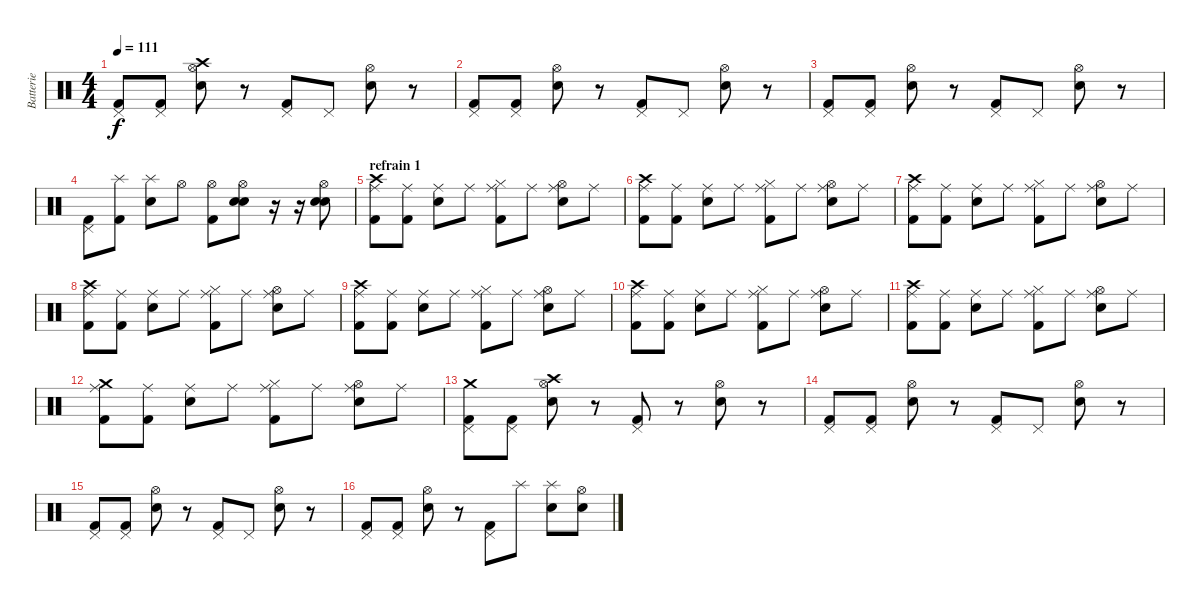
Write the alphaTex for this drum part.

\track ("Batterie" "Batterie") {instrument percussion}
\staff {score}
\articulation defaults
\ts (4 4)
\tempo 111
\clef neutral
\ks c
("Pedal Hi-Hat (hit)" "Kick (hit) 2").8{dy f} ("Pedal Hi-Hat (hit)" "Kick (hit) 2").8 ("Hi-Hat (open)" "Crash high (hit)" "Electric Snare (hit)").8 r.8 ("Pedal Hi-Hat (hit)" "Kick (hit) 2").8 "Pedal Hi-Hat (hit)".8 ("Hi-Hat (open)" "Electric Snare (hit)").8 r.8 |
("Pedal Hi-Hat (hit)" "Kick (hit) 2").8 ("Pedal Hi-Hat (hit)" "Kick (hit) 2").8 ("Hi-Hat (open)" "Electric Snare (hit)").8 r.8 ("Pedal Hi-Hat (hit)" "Kick (hit) 2").8 "Pedal Hi-Hat (hit)".8 ("Hi-Hat (open)" "Electric Snare (hit)").8 r.8 |
("Pedal Hi-Hat (hit)" "Kick (hit) 2").8 ("Pedal Hi-Hat (hit)" "Kick (hit) 2").8 ("Hi-Hat (open)" "Electric Snare (hit)").8 r.8 ("Pedal Hi-Hat (hit)" "Kick (hit) 2").8 "Pedal Hi-Hat (hit)".8 ("Hi-Hat (open)" "Electric Snare (hit)").8 r.8 |
("Pedal Hi-Hat (hit)" "Kick (hit) 2").8 ("Splash (hit)" "Kick (hit) 2").8 ("Splash (hit)" "Electric Snare (hit)").8 "Hi-Hat (open)".8 ("Hi-Hat (open)" "Kick (hit) 2").8 ("Hi-Hat (open)" "Electric Snare (hit)" "Electric Snare (hit)").8 r.16 r.16 ("Hi-Hat (open)" "Electric Snare (hit)" "Electric Snare (hit)").8 |
\section ("" "refrain 1")
("Ride (middle)" "Crash high (hit)" "Kick (hit) 2").8 ("Ride (middle)" "Kick (hit) 2").8 ("Ride (middle)" "Electric Snare (hit)").8 "Ride (middle)".8 ("Ride (middle)" "Hi-Hat (closed)" "Kick (hit) 2").8 "Ride (middle)".8 ("Ride (middle)" "Hi-Hat (open)" "Electric Snare (hit)").8 "Ride (middle)".8 |
("Ride (middle)" "Crash high (hit)" "Kick (hit) 2").8 ("Ride (middle)" "Kick (hit) 2").8 ("Ride (middle)" "Electric Snare (hit)").8 "Ride (middle)".8 ("Ride (middle)" "Hi-Hat (closed)" "Kick (hit) 2").8 "Ride (middle)".8 ("Ride (middle)" "Hi-Hat (open)" "Electric Snare (hit)").8 "Ride (middle)".8 |
("Ride (middle)" "Crash high (hit)" "Kick (hit) 2").8 ("Ride (middle)" "Kick (hit) 2").8 ("Ride (middle)" "Electric Snare (hit)").8 "Ride (middle)".8 ("Ride (middle)" "Hi-Hat (closed)" "Kick (hit) 2").8 "Ride (middle)".8 ("Ride (middle)" "Hi-Hat (open)" "Electric Snare (hit)").8 "Ride (middle)".8 |
("Ride (middle)" "Crash high (hit)" "Kick (hit) 2").8 ("Ride (middle)" "Kick (hit) 2").8 ("Ride (middle)" "Electric Snare (hit)").8 "Ride (middle)".8 ("Ride (middle)" "Hi-Hat (closed)" "Kick (hit) 2").8 "Ride (middle)".8 ("Ride (middle)" "Hi-Hat (open)" "Electric Snare (hit)").8 "Ride (middle)".8 |
("Ride (middle)" "Crash high (hit)" "Kick (hit) 2").8 ("Ride (middle)" "Kick (hit) 2").8 ("Ride (middle)" "Electric Snare (hit)").8 "Ride (middle)".8 ("Ride (middle)" "Hi-Hat (closed)" "Kick (hit) 2").8 "Ride (middle)".8 ("Ride (middle)" "Hi-Hat (open)" "Electric Snare (hit)").8 "Ride (middle)".8 |
("Ride (middle)" "Crash high (hit)" "Kick (hit) 2").8 ("Ride (middle)" "Kick (hit) 2").8 ("Ride (middle)" "Electric Snare (hit)").8 "Ride (middle)".8 ("Ride (middle)" "Hi-Hat (closed)" "Kick (hit) 2").8 "Ride (middle)".8 ("Ride (middle)" "Hi-Hat (open)" "Electric Snare (hit)").8 "Ride (middle)".8 |
("Ride (middle)" "Crash high (hit)" "Kick (hit) 2").8 ("Ride (middle)" "Kick (hit) 2").8 ("Ride (middle)" "Electric Snare (hit)").8 "Ride (middle)".8 ("Ride (middle)" "Hi-Hat (closed)" "Kick (hit) 2").8 "Ride (middle)".8 ("Ride (middle)" "Hi-Hat (open)" "Electric Snare (hit)").8 "Ride (middle)".8 |
("Ride (middle)" "Crash medium (hit)" "Kick (hit) 2").8 ("Ride (middle)" "Kick (hit) 2").8 ("Ride (middle)" "Electric Snare (hit)").8 "Ride (middle)".8 ("Ride (middle)" "Hi-Hat (closed)" "Kick (hit) 2").8 "Ride (middle)".8 ("Ride (middle)" "Hi-Hat (open)" "Electric Snare (hit)").8 "Ride (middle)".8 |
("Pedal Hi-Hat (hit)" "Crash medium (hit)" "Kick (hit) 2").8 ("Pedal Hi-Hat (hit)" "Kick (hit) 2").8 ("Hi-Hat (open)" "Crash high (hit)" "Electric Snare (hit)").8 r.8 ("Pedal Hi-Hat (hit)" "Kick (hit) 2").8 r.8 ("Hi-Hat (open)" "Electric Snare (hit)").8 r.8 |
("Pedal Hi-Hat (hit)" "Kick (hit) 2").8 ("Pedal Hi-Hat (hit)" "Kick (hit) 2").8 ("Hi-Hat (open)" "Electric Snare (hit)").8 r.8 ("Pedal Hi-Hat (hit)" "Kick (hit) 2").8 "Pedal Hi-Hat (hit)".8 ("Hi-Hat (open)" "Electric Snare (hit)").8 r.8 |
("Pedal Hi-Hat (hit)" "Kick (hit) 2").8 ("Pedal Hi-Hat (hit)" "Kick (hit) 2").8 ("Hi-Hat (open)" "Electric Snare (hit)").8 r.8 ("Pedal Hi-Hat (hit)" "Kick (hit) 2").8 "Pedal Hi-Hat (hit)".8 ("Hi-Hat (open)" "Electric Snare (hit)").8 r.8 |
("Pedal Hi-Hat (hit)" "Kick (hit) 2").8 ("Pedal Hi-Hat (hit)" "Kick (hit) 2").8 ("Hi-Hat (open)" "Electric Snare (hit)").8 r.8 ("Pedal Hi-Hat (hit)" "Kick (hit) 2").8 "Splash (hit)".8 ("Splash (hit)" "Electric Snare (hit)").8 ("Hi-Hat (open)" "Electric Snare (hit)").8
